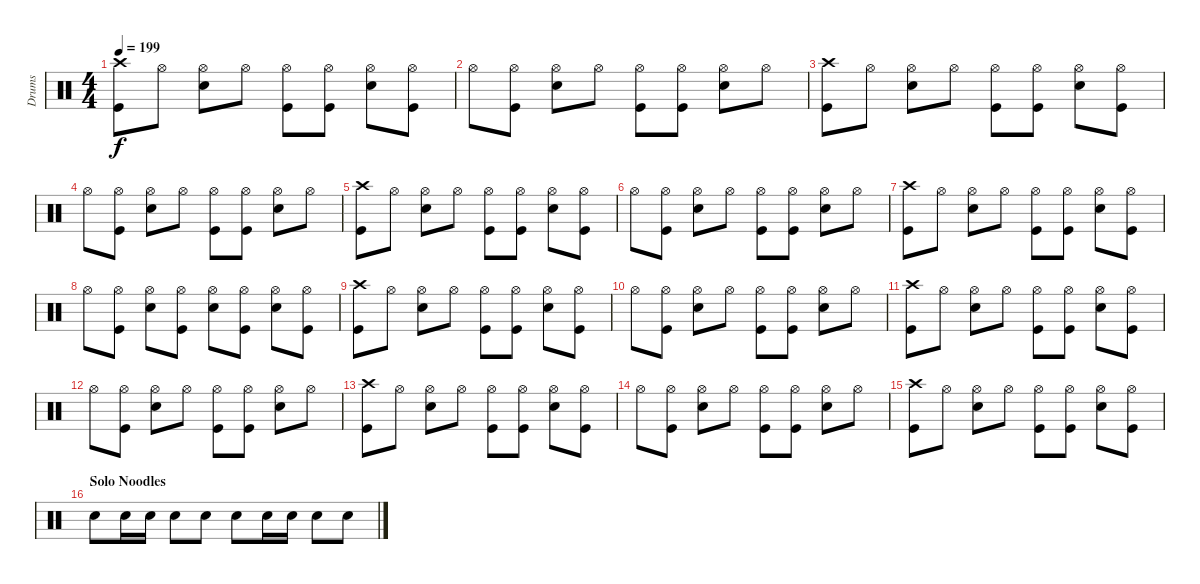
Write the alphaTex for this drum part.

\track ("Drums" "Drums") {instrument percussion}
\staff {score}
\articulation defaults
\ts (4 4)
\tempo 199
\clef neutral
\ks c
("Kick (hit)" "Crash high (hit)").8{dy f} "Hi-Hat (open)".8 ("Hi-Hat (open)" "Snare (hit) 2").8 "Hi-Hat (open)".8 ("Hi-Hat (open)" "Kick (hit)").8 ("Hi-Hat (open)" "Kick (hit)").8 ("Hi-Hat (open)" "Snare (hit) 2").8 ("Hi-Hat (open)" "Kick (hit)").8 |
"Hi-Hat (open)".8 ("Kick (hit)" "Hi-Hat (open)").8 ("Hi-Hat (open)" "Snare (hit) 2").8 "Hi-Hat (open)".8 ("Hi-Hat (open)" "Kick (hit)").8 ("Kick (hit)" "Hi-Hat (open)").8 ("Hi-Hat (open)" "Snare (hit) 2").8 "Hi-Hat (open)".8 |
("Kick (hit)" "Crash high (hit)").8 "Hi-Hat (open)".8 ("Hi-Hat (open)" "Snare (hit) 2").8 "Hi-Hat (open)".8 ("Hi-Hat (open)" "Kick (hit)").8 ("Hi-Hat (open)" "Kick (hit)").8 ("Hi-Hat (open)" "Snare (hit) 2").8 ("Hi-Hat (open)" "Kick (hit)").8 |
"Hi-Hat (open)".8 ("Kick (hit)" "Hi-Hat (open)").8 ("Hi-Hat (open)" "Snare (hit) 2").8 "Hi-Hat (open)".8 ("Hi-Hat (open)" "Kick (hit)").8 ("Kick (hit)" "Hi-Hat (open)").8 ("Hi-Hat (open)" "Snare (hit) 2").8 "Hi-Hat (open)".8 |
("Kick (hit)" "Crash high (hit)").8 "Hi-Hat (open)".8 ("Hi-Hat (open)" "Snare (hit) 2").8 "Hi-Hat (open)".8 ("Hi-Hat (open)" "Kick (hit)").8 ("Hi-Hat (open)" "Kick (hit)").8 ("Hi-Hat (open)" "Snare (hit) 2").8 ("Hi-Hat (open)" "Kick (hit)").8 |
"Hi-Hat (open)".8 ("Kick (hit)" "Hi-Hat (open)").8 ("Hi-Hat (open)" "Snare (hit) 2").8 "Hi-Hat (open)".8 ("Hi-Hat (open)" "Kick (hit)").8 ("Kick (hit)" "Hi-Hat (open)").8 ("Hi-Hat (open)" "Snare (hit) 2").8 "Hi-Hat (open)".8 |
("Kick (hit)" "Crash high (hit)").8 "Hi-Hat (open)".8 ("Hi-Hat (open)" "Snare (hit) 2").8 "Hi-Hat (open)".8 ("Hi-Hat (open)" "Kick (hit)").8 ("Hi-Hat (open)" "Kick (hit)").8 ("Hi-Hat (open)" "Snare (hit) 2").8 ("Hi-Hat (open)" "Kick (hit)").8 |
"Hi-Hat (open)".8 ("Hi-Hat (open)" "Kick (hit)").8 ("Hi-Hat (open)" "Snare (hit) 2").8 ("Hi-Hat (open)" "Kick (hit)").8 ("Hi-Hat (open)" "Snare (hit) 2").8 ("Hi-Hat (open)" "Kick (hit)").8 ("Hi-Hat (open)" "Snare (hit) 2").8 ("Hi-Hat (open)" "Kick (hit)").8 |
("Kick (hit)" "Crash high (hit)").8 "Hi-Hat (open)".8 ("Hi-Hat (open)" "Snare (hit) 2").8 "Hi-Hat (open)".8 ("Hi-Hat (open)" "Kick (hit)").8 ("Hi-Hat (open)" "Kick (hit)").8 ("Hi-Hat (open)" "Snare (hit) 2").8 ("Hi-Hat (open)" "Kick (hit)").8 |
"Hi-Hat (open)".8 ("Kick (hit)" "Hi-Hat (open)").8 ("Hi-Hat (open)" "Snare (hit) 2").8 "Hi-Hat (open)".8 ("Hi-Hat (open)" "Kick (hit)").8 ("Kick (hit)" "Hi-Hat (open)").8 ("Hi-Hat (open)" "Snare (hit) 2").8 "Hi-Hat (open)".8 |
("Kick (hit)" "Crash high (hit)").8 "Hi-Hat (open)".8 ("Hi-Hat (open)" "Snare (hit) 2").8 "Hi-Hat (open)".8 ("Hi-Hat (open)" "Kick (hit)").8 ("Hi-Hat (open)" "Kick (hit)").8 ("Hi-Hat (open)" "Snare (hit) 2").8 ("Hi-Hat (open)" "Kick (hit)").8 |
"Hi-Hat (open)".8 ("Kick (hit)" "Hi-Hat (open)").8 ("Hi-Hat (open)" "Snare (hit) 2").8 "Hi-Hat (open)".8 ("Hi-Hat (open)" "Kick (hit)").8 ("Kick (hit)" "Hi-Hat (open)").8 ("Hi-Hat (open)" "Snare (hit) 2").8 "Hi-Hat (open)".8 |
("Kick (hit)" "Crash high (hit)").8 "Hi-Hat (open)".8 ("Hi-Hat (open)" "Snare (hit) 2").8 "Hi-Hat (open)".8 ("Hi-Hat (open)" "Kick (hit)").8 ("Hi-Hat (open)" "Kick (hit)").8 ("Hi-Hat (open)" "Snare (hit) 2").8 ("Hi-Hat (open)" "Kick (hit)").8 |
"Hi-Hat (open)".8 ("Kick (hit)" "Hi-Hat (open)").8 ("Hi-Hat (open)" "Snare (hit) 2").8 "Hi-Hat (open)".8 ("Hi-Hat (open)" "Kick (hit)").8 ("Kick (hit)" "Hi-Hat (open)").8 ("Hi-Hat (open)" "Snare (hit) 2").8 "Hi-Hat (open)".8 |
("Kick (hit)" "Crash high (hit)").8 "Hi-Hat (open)".8 ("Hi-Hat (open)" "Snare (hit) 2").8 "Hi-Hat (open)".8 ("Hi-Hat (open)" "Kick (hit)").8 ("Hi-Hat (open)" "Kick (hit)").8 ("Hi-Hat (open)" "Snare (hit) 2").8 ("Hi-Hat (open)" "Kick (hit)").8 |
\section ("" "Solo Noodles")
"Snare (hit) 2".8 "Snare (hit) 2".16 "Snare (hit) 2".16 "Snare (hit) 2".8 "Snare (hit) 2".8 "Snare (hit) 2".8 "Snare (hit) 2".16 "Snare (hit) 2".16 "Snare (hit) 2".8 "Snare (hit) 2".8
